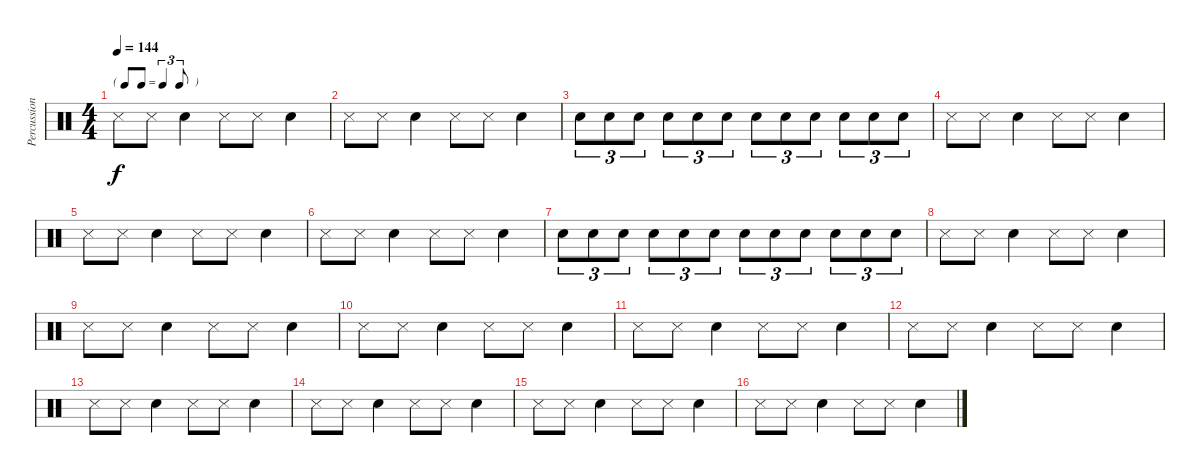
\track ("Percussions" "Percussion") {instrument percussion}
\staff {score}
\articulation defaults
\ts (4 4)
\tf triplet8th
\tempo 144
\clef neutral
\ks c "Snare (side stick) 3".8{dy f} "Snare (side stick) 3".8 "Snare (hit) 2".4 "Snare (side stick) 3".8 "Snare (side stick) 3".8 "Snare (hit) 2".4
|
"Snare (side stick) 3".8 "Snare (side stick) 3".8 "Snare (hit) 2".4 "Snare (side stick) 3".8 "Snare (side stick) 3".8 "Snare (hit) 2".4 |
"Snare (hit) 2".8{tu (3 2)} "Snare (hit) 2".8{tu (3 2)} "Snare (hit) 2".8{tu (3 2)} "Snare (hit) 2".8{tu (3 2)} "Snare (hit) 2".8{tu (3 2)} "Snare (hit) 2".8{tu (3 2)} "Snare (hit) 2".8{tu (3 2)} "Snare (hit) 2".8{tu (3 2)} "Snare (hit) 2".8{tu (3 2)} "Snare (hit) 2".8{tu (3 2)} "Snare (hit) 2".8{tu (3 2)} "Snare (hit) 2".8{tu (3 2)} |
"Snare (side stick) 3".8 "Snare (side stick) 3".8 "Snare (hit) 2".4 "Snare (side stick) 3".8 "Snare (side stick) 3".8 "Snare (hit) 2".4 |
"Snare (side stick) 3".8 "Snare (side stick) 3".8 "Snare (hit) 2".4 "Snare (side stick) 3".8 "Snare (side stick) 3".8 "Snare (hit) 2".4 |
"Snare (side stick) 3".8 "Snare (side stick) 3".8 "Snare (hit) 2".4 "Snare (side stick) 3".8 "Snare (side stick) 3".8 "Snare (hit) 2".4 |
"Snare (hit) 2".8{tu (3 2)} "Snare (hit) 2".8{tu (3 2)} "Snare (hit) 2".8{tu (3 2)} "Snare (hit) 2".8{tu (3 2)} "Snare (hit) 2".8{tu (3 2)} "Snare (hit) 2".8{tu (3 2)} "Snare (hit) 2".8{tu (3 2)} "Snare (hit) 2".8{tu (3 2)} "Snare (hit) 2".8{tu (3 2)} "Snare (hit) 2".8{tu (3 2)} "Snare (hit) 2".8{tu (3 2)} "Snare (hit) 2".8{tu (3 2)} |
"Snare (side stick) 3".8 "Snare (side stick) 3".8 "Snare (hit) 2".4 "Snare (side stick) 3".8 "Snare (side stick) 3".8 "Snare (hit) 2".4 |
"Snare (side stick) 3".8 "Snare (side stick) 3".8 "Snare (hit) 2".4 "Snare (side stick) 3".8 "Snare (side stick) 3".8 "Snare (hit) 2".4 |
"Snare (side stick) 3".8 "Snare (side stick) 3".8 "Snare (hit) 2".4 "Snare (side stick) 3".8 "Snare (side stick) 3".8 "Snare (hit) 2".4 |
"Snare (side stick) 3".8 "Snare (side stick) 3".8 "Snare (hit) 2".4 "Snare (side stick) 3".8 "Snare (side stick) 3".8 "Snare (hit) 2".4 |
"Snare (side stick) 3".8 "Snare (side stick) 3".8 "Snare (hit) 2".4 "Snare (side stick) 3".8 "Snare (side stick) 3".8 "Snare (hit) 2".4 |
"Snare (side stick) 3".8 "Snare (side stick) 3".8 "Snare (hit) 2".4 "Snare (side stick) 3".8 "Snare (side stick) 3".8 "Snare (hit) 2".4 |
"Snare (side stick) 3".8 "Snare (side stick) 3".8 "Snare (hit) 2".4 "Snare (side stick) 3".8 "Snare (side stick) 3".8 "Snare (hit) 2".4 |
"Snare (side stick) 3".8 "Snare (side stick) 3".8 "Snare (hit) 2".4 "Snare (side stick) 3".8 "Snare (side stick) 3".8 "Snare (hit) 2".4 |
"Snare (side stick) 3".8 "Snare (side stick) 3".8 "Snare (hit) 2".4 "Snare (side stick) 3".8 "Snare (side stick) 3".8 "Snare (hit) 2".4
